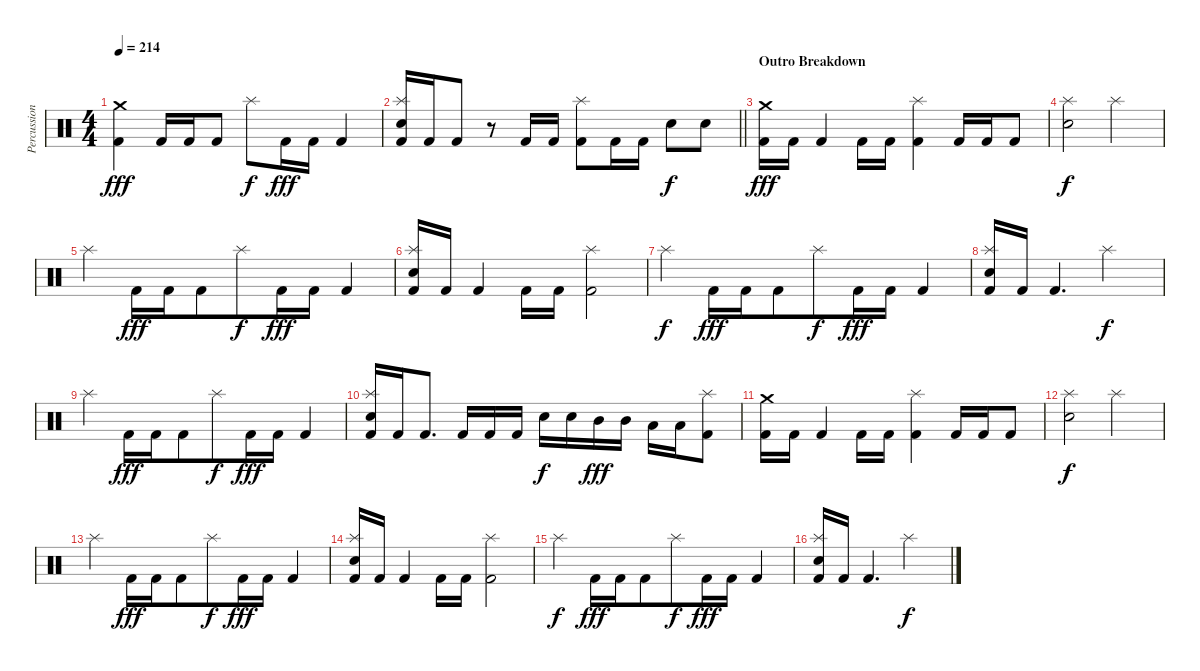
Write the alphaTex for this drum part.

\track ("Percussion" "Percussion") {instrument percussion}
\staff {score}
\articulation defaults
\ts (4 4)
\tempo 214
\clef neutral
\ks c
("Crash medium (hit)" "Kick (hit) 2").4{dy fff} "Kick (hit) 2".16 "Kick (hit) 2".16 "Kick (hit) 2".8 "Splash (hit)".8{dy f} "Kick (hit) 2".16{dy fff} "Kick (hit) 2".16 "Kick (hit) 2".4 |
\barLineRight lightlight
("Splash (hit)" "Electric Snare (hit)" "Kick (hit) 2").16 "Kick (hit) 2".16 "Kick (hit) 2".8 r.8 "Kick (hit) 2".16 "Kick (hit) 2".16 ("Splash (hit)" "Kick (hit) 2").8 "Kick (hit) 2".16 "Kick (hit) 2".16 "Electric Snare (hit)".8{dy f} "Electric Snare (hit)".8 |
\section ("" "Outro Breakdown")
("Crash medium (hit)" "Kick (hit) 2").16{dy fff} "Kick (hit) 2".16 "Kick (hit) 2".4 "Kick (hit) 2".16 "Kick (hit) 2".16{beam merge} ("Splash (hit)" "Kick (hit) 2").4 "Kick (hit) 2".16 "Kick (hit) 2".16 "Kick (hit) 2".8 |
("Splash (hit)" "Electric Snare (hit)").2{dy f beam merge} "Splash (hit)".2 |
"Splash (hit)".4 "Kick (hit) 2".16{dy fff} "Kick (hit) 2".16 "Kick (hit) 2".8{beam merge} "Splash (hit)".8{dy f} "Kick (hit) 2".16{dy fff} "Kick (hit) 2".16 "Kick (hit) 2".4 |
("Splash (hit)" "Electric Snare (hit)" "Kick (hit) 2").16 "Kick (hit) 2".16 "Kick (hit) 2".4 "Kick (hit) 2".16 "Kick (hit) 2".16{beam merge} ("Splash (hit)" "Kick (hit) 2").2 |
"Splash (hit)".4{dy f} "Kick (hit) 2".16{dy fff} "Kick (hit) 2".16 "Kick (hit) 2".8{beam merge} "Splash (hit)".8{dy f} "Kick (hit) 2".16{dy fff} "Kick (hit) 2".16 "Kick (hit) 2".4 |
("Splash (hit)" "Electric Snare (hit)" "Kick (hit) 2").16 "Kick (hit) 2".16 "Kick (hit) 2".4{d} "Splash (hit)".2{dy f} |
"Splash (hit)".4 "Kick (hit) 2".16{dy fff} "Kick (hit) 2".16 "Kick (hit) 2".8{beam merge} "Splash (hit)".8{dy f} "Kick (hit) 2".16{dy fff} "Kick (hit) 2".16 "Kick (hit) 2".4 |
("Splash (hit)" "Electric Snare (hit)" "Kick (hit) 2").16 "Kick (hit) 2".16 "Kick (hit) 2".8{d} "Kick (hit) 2".16 "Kick (hit) 2".16 "Kick (hit) 2".16 "Electric Snare (hit)".16{dy f} "Electric Snare (hit)".16 "Mid Tom (hit)".16{dy fff} "Mid Tom (hit)".16 "Low Tom (hit)".16 "Low Tom (hit)".16 ("Splash (hit)" "Kick (hit) 2").8 |
("Crash medium (hit)" "Kick (hit) 2").16 "Kick (hit) 2".16 "Kick (hit) 2".4 "Kick (hit) 2".16 "Kick (hit) 2".16{beam merge} ("Splash (hit)" "Kick (hit) 2").4 "Kick (hit) 2".16 "Kick (hit) 2".16 "Kick (hit) 2".8 |
("Splash (hit)" "Electric Snare (hit)").2{dy f beam merge} "Splash (hit)".2 |
"Splash (hit)".4 "Kick (hit) 2".16{dy fff} "Kick (hit) 2".16 "Kick (hit) 2".8{beam merge} "Splash (hit)".8{dy f} "Kick (hit) 2".16{dy fff} "Kick (hit) 2".16 "Kick (hit) 2".4 |
("Splash (hit)" "Electric Snare (hit)" "Kick (hit) 2").16 "Kick (hit) 2".16 "Kick (hit) 2".4 "Kick (hit) 2".16 "Kick (hit) 2".16{beam merge} ("Splash (hit)" "Kick (hit) 2").2 |
"Splash (hit)".4{dy f} "Kick (hit) 2".16{dy fff} "Kick (hit) 2".16 "Kick (hit) 2".8{beam merge} "Splash (hit)".8{dy f} "Kick (hit) 2".16{dy fff} "Kick (hit) 2".16 "Kick (hit) 2".4 |
("Splash (hit)" "Electric Snare (hit)" "Kick (hit) 2").16 "Kick (hit) 2".16 "Kick (hit) 2".4{d} "Splash (hit)".2{dy f}
